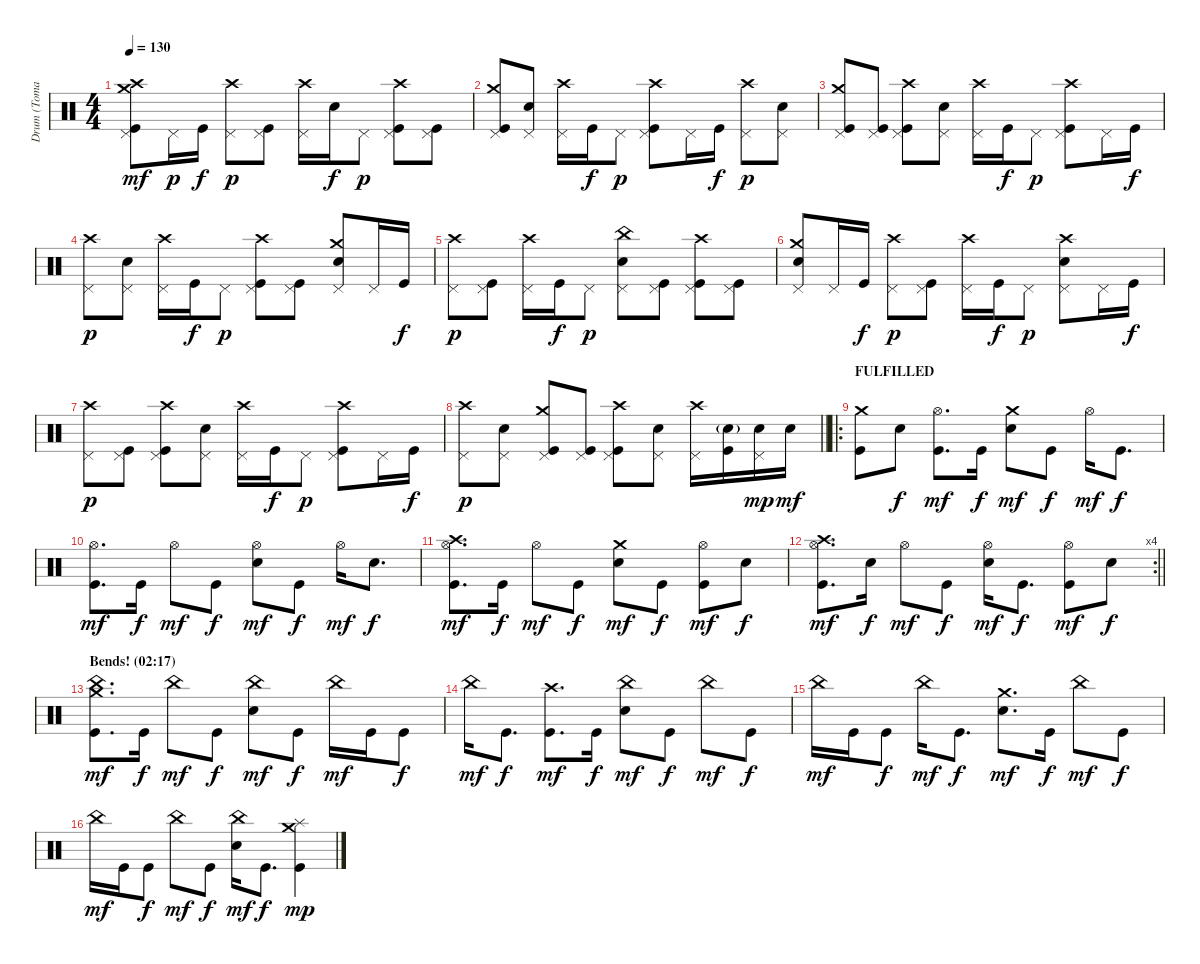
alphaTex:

\track ("Drum (Tomas Haake)" "Drum (Toma") {instrument percussion}
\staff {score}
\articulation defaults
\ts (4 4)
\tempo 130
\clef neutral
\ks c
("Crash high (hit)" "Pedal Hi-Hat (hit)" "Crash medium (hit)" "Kick (hit)").8{dy mf} "Pedal Hi-Hat (hit)".16{dy p} "Kick (hit)".16{dy f} ("Crash high (hit)" "Pedal Hi-Hat (hit)").8{dy p} ("Pedal Hi-Hat (hit)" "Kick (hit)").8 ("Crash high (hit)" "Pedal Hi-Hat (hit)").16 "Electric Snare (hit)".16{dy f} "Pedal Hi-Hat (hit)".8{dy p} ("Crash high (hit)" "Pedal Hi-Hat (hit)" "Kick (hit)").8 ("Pedal Hi-Hat (hit)" "Kick (hit)").8 |
("Crash medium (hit)" "Pedal Hi-Hat (hit)" "Kick (hit)").8 ("Pedal Hi-Hat (hit)" "Electric Snare (hit)").8 ("Crash high (hit)" "Pedal Hi-Hat (hit)").16 "Kick (hit)".16{dy f} "Pedal Hi-Hat (hit)".8{dy p} ("Crash high (hit)" "Pedal Hi-Hat (hit)" "Kick (hit)").8 "Pedal Hi-Hat (hit)".16 "Kick (hit)".16{dy f} ("Crash high (hit)" "Pedal Hi-Hat (hit)").8{dy p} ("Pedal Hi-Hat (hit)" "Electric Snare (hit)").8 |
("Crash medium (hit)" "Pedal Hi-Hat (hit)" "Kick (hit)").8 ("Pedal Hi-Hat (hit)" "Kick (hit)").8 ("Crash high (hit)" "Pedal Hi-Hat (hit)" "Kick (hit)").8 ("Pedal Hi-Hat (hit)" "Electric Snare (hit)").8 ("Crash high (hit)" "Pedal Hi-Hat (hit)").16 "Kick (hit)".16{dy f} "Pedal Hi-Hat (hit)".8{dy p} ("Crash high (hit)" "Pedal Hi-Hat (hit)" "Kick (hit)").8 "Pedal Hi-Hat (hit)".16 "Kick (hit)".16{dy f} |
("Crash high (hit)" "Pedal Hi-Hat (hit)").8{dy p} ("Pedal Hi-Hat (hit)" "Electric Snare (hit)").8 ("Crash high (hit)" "Pedal Hi-Hat (hit)").16 "Kick (hit)".16{dy f} "Pedal Hi-Hat (hit)".8{dy p} ("Crash high (hit)" "Pedal Hi-Hat (hit)" "Kick (hit)").8 ("Pedal Hi-Hat (hit)" "Kick (hit)").8 ("Crash medium (hit)" "Pedal Hi-Hat (hit)" "Electric Snare (hit)").8 "Pedal Hi-Hat (hit)".16 "Kick (hit)".16{dy f} |
("Crash high (hit)" "Pedal Hi-Hat (hit)").8{dy p} ("Pedal Hi-Hat (hit)" "Kick (hit)").8 ("Crash high (hit)" "Pedal Hi-Hat (hit)").16 "Kick (hit)".16{dy f} "Pedal Hi-Hat (hit)".8{dy p} ("China (hit)" "Pedal Hi-Hat (hit)" "Electric Snare (hit)").8 ("Pedal Hi-Hat (hit)" "Kick (hit)").8 ("Crash high (hit)" "Pedal Hi-Hat (hit)" "Kick (hit)").8 ("Pedal Hi-Hat (hit)" "Kick (hit)").8 |
("Crash medium (hit)" "Pedal Hi-Hat (hit)" "Electric Snare (hit)").8 "Pedal Hi-Hat (hit)".16 "Kick (hit)".16{dy f} ("Crash high (hit)" "Pedal Hi-Hat (hit)").8{dy p} ("Pedal Hi-Hat (hit)" "Kick (hit)").8 ("Crash high (hit)" "Pedal Hi-Hat (hit)").16 "Kick (hit)".16{dy f} "Pedal Hi-Hat (hit)".8{dy p} ("Crash high (hit)" "Pedal Hi-Hat (hit)" "Electric Snare (hit)").8 "Pedal Hi-Hat (hit)".16 "Kick (hit)".16{dy f} |
("Crash high (hit)" "Pedal Hi-Hat (hit)").8{dy p} ("Pedal Hi-Hat (hit)" "Kick (hit)").8 ("Crash high (hit)" "Pedal Hi-Hat (hit)" "Kick (hit)").8 ("Pedal Hi-Hat (hit)" "Electric Snare (hit)").8 ("Crash high (hit)" "Pedal Hi-Hat (hit)").16 "Kick (hit)".16{dy f} "Pedal Hi-Hat (hit)".8{dy p} ("Crash high (hit)" "Pedal Hi-Hat (hit)" "Kick (hit)").8 "Pedal Hi-Hat (hit)".16 "Kick (hit)".16{dy f} |
\barLineRight lightlight
("Crash high (hit)" "Pedal Hi-Hat (hit)").8{dy p} ("Pedal Hi-Hat (hit)" "Electric Snare (hit)").8 ("Crash medium (hit)" "Pedal Hi-Hat (hit)" "Kick (hit)").8 ("Pedal Hi-Hat (hit)" "Kick (hit)").8 ("Crash high (hit)" "Pedal Hi-Hat (hit)" "Kick (hit)").8 ("Pedal Hi-Hat (hit)" "Electric Snare (hit)").8 ("Crash high (hit)" "Pedal Hi-Hat (hit)").16 ("Electric Snare (hit)"{g} "Kick (hit)").16 ("Pedal Hi-Hat (hit)" "Electric Snare (hit)").16{dy mp} "Electric Snare (hit)".16{dy mf} |
\ro
\section ("" "FULFILLED")
("Crash medium (hit)" "Kick (hit)").8 "Electric Snare (hit)".8{dy f} ("Hi-Hat (open)" "Kick (hit)").8{d dy mf} "Kick (hit)".16{dy f} ("Crash medium (hit)" "Electric Snare (hit)").8{dy mf} "Kick (hit)".8{dy f} "Hi-Hat (open)".16{dy mf} "Kick (hit)".8{d dy f} |
("Hi-Hat (open)" "Kick (hit)").8{d dy mf} "Kick (hit)".16{dy f} "Hi-Hat (open)".8{dy mf} "Kick (hit)".8{dy f} ("Hi-Hat (open)" "Electric Snare (hit)").8{dy mf} "Kick (hit)".8{dy f} "Hi-Hat (open)".16{dy mf} "Electric Snare (hit)".8{d dy f} |
("Crash high (hit)" "Hi-Hat (open)" "Kick (hit)").8{d dy mf} "Kick (hit)".16{dy f} "Hi-Hat (open)".8{dy mf} "Kick (hit)".8{dy f} ("Crash medium (hit)" "Electric Snare (hit)").8{dy mf} "Kick (hit)".8{dy f} ("Hi-Hat (open)" "Kick (hit)").8{dy mf} "Electric Snare (hit)".8{dy f} |
\rc 4
\barLineRight lightlight
("Crash high (hit)" "Hi-Hat (open)" "Kick (hit)").8{d dy mf} "Electric Snare (hit)".16{dy f} "Hi-Hat (open)".8{dy mf} "Kick (hit)".8{dy f} ("Hi-Hat (open)" "Electric Snare (hit)").16{dy mf} "Kick (hit)".8{d dy f} ("Hi-Hat (open)" "Kick (hit)").8{dy mf} "Electric Snare (hit)".8{dy f} |
\section ("" "Bends! (02:17)")
("China (hit)" "Crash medium (hit)" "Kick (hit)").8{d dy mf} "Kick (hit)".16{dy f} "China (hit)".8{dy mf} "Kick (hit)".8{dy f} ("China (hit)" "Electric Snare (hit)").8{dy mf} "Kick (hit)".8{dy f} "China (hit)".16{dy mf} "Kick (hit)".16 "Kick (hit)".8{dy f} |
"China (hit)".16{dy mf} "Kick (hit)".8{d dy f} ("Crash high (hit)" "Kick (hit)").8{d dy mf} "Kick (hit)".16{dy f} ("China (hit)" "Electric Snare (hit)").8{dy mf} "Kick (hit)".8{dy f} "China (hit)".8{dy mf} "Kick (hit)".8{dy f} |
"China (hit)".16{dy mf} "Kick (hit)".16 "Kick (hit)".8{dy f} "China (hit)".16{dy mf} "Kick (hit)".8{d dy f} ("Crash medium (hit)" "Electric Snare (hit)").8{d dy mf} "Kick (hit)".16{dy f} "China (hit)".8{dy mf} "Kick (hit)".8{dy f} |
"China (hit)".16{dy mf} "Kick (hit)".16 "Kick (hit)".8{dy f} "China (hit)".8{dy mf} "Kick (hit)".8{dy f} ("China (hit)" "Electric Snare (hit)").16{dy mf} "Kick (hit)".8{d dy f} ("Crash medium (hit)" "Splash (hit)" "Kick (hit)").4{dy mp}
